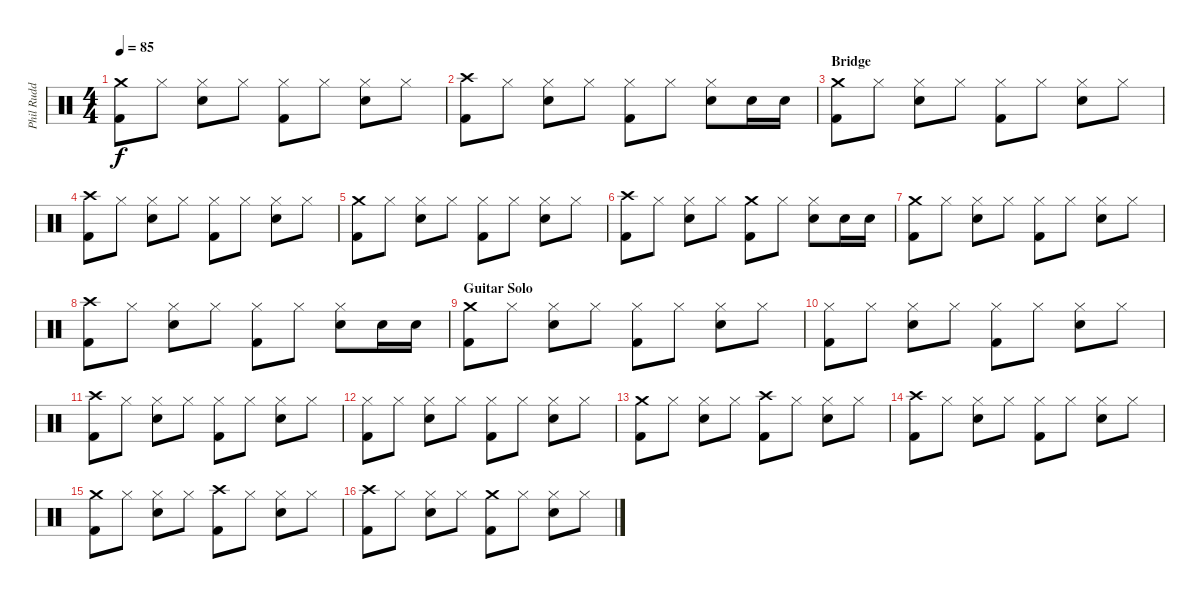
\track ("Phil Rudd" "Phil Rudd") {instrument percussion}
\staff {score}
\articulation defaults
\ts (4 4)
\tempo 85
\clef neutral
\ks c
("Crash medium (hit)" "Kick (hit) 2").8{dy f} "Hi-Hat (closed)".8 ("Hi-Hat (closed)" "Snare (hit) 2").8 "Hi-Hat (closed)".8 ("Hi-Hat (closed)" "Kick (hit) 2").8 "Hi-Hat (closed)".8 ("Hi-Hat (closed)" "Snare (hit) 2").8 "Hi-Hat (closed)".8 |
("Crash high (hit)" "Kick (hit) 2").8 "Hi-Hat (closed)".8 ("Hi-Hat (closed)" "Snare (hit) 2").8 "Hi-Hat (closed)".8 ("Hi-Hat (closed)" "Kick (hit) 2").8 "Hi-Hat (closed)".8 ("Hi-Hat (closed)" "Snare (hit) 2").8 "Snare (hit) 2".16 "Snare (hit) 2".16 |
\section ("" "Bridge")
("Crash medium (hit)" "Kick (hit) 2").8 "Hi-Hat (closed)".8 ("Hi-Hat (closed)" "Snare (hit) 2").8 "Hi-Hat (closed)".8 ("Hi-Hat (closed)" "Kick (hit) 2").8 "Hi-Hat (closed)".8 ("Hi-Hat (closed)" "Snare (hit) 2").8 "Hi-Hat (closed)".8 |
("Crash high (hit)" "Kick (hit) 2").8 "Hi-Hat (closed)".8 ("Hi-Hat (closed)" "Snare (hit) 2").8 "Hi-Hat (closed)".8 ("Hi-Hat (closed)" "Kick (hit) 2").8 "Hi-Hat (closed)".8 ("Hi-Hat (closed)" "Snare (hit) 2").8 "Hi-Hat (closed)".8 |
("Crash medium (hit)" "Kick (hit) 2").8 "Hi-Hat (closed)".8 ("Hi-Hat (closed)" "Snare (hit) 2").8 "Hi-Hat (closed)".8 ("Hi-Hat (closed)" "Kick (hit) 2").8 "Hi-Hat (closed)".8 ("Hi-Hat (closed)" "Snare (hit) 2").8 "Hi-Hat (closed)".8 |
("Crash high (hit)" "Kick (hit) 2").8 "Hi-Hat (closed)".8 ("Hi-Hat (closed)" "Snare (hit) 2").8 "Hi-Hat (closed)".8 ("Crash medium (hit)" "Kick (hit) 2").8 "Hi-Hat (closed)".8 ("Hi-Hat (closed)" "Snare (hit) 2").8 "Snare (hit) 2".16 "Snare (hit) 2".16 |
("Crash medium (hit)" "Kick (hit) 2").8 "Hi-Hat (closed)".8 ("Hi-Hat (closed)" "Snare (hit) 2").8 "Hi-Hat (closed)".8 ("Hi-Hat (closed)" "Kick (hit) 2").8 "Hi-Hat (closed)".8 ("Hi-Hat (closed)" "Snare (hit) 2").8 "Hi-Hat (closed)".8 |
("Crash high (hit)" "Kick (hit) 2").8 "Hi-Hat (closed)".8 ("Hi-Hat (closed)" "Snare (hit) 2").8 "Hi-Hat (closed)".8 ("Hi-Hat (closed)" "Kick (hit) 2").8 "Hi-Hat (closed)".8 ("Hi-Hat (closed)" "Snare (hit) 2").8 "Snare (hit) 2".16 "Snare (hit) 2".16 |
\section ("" "Guitar Solo")
("Crash medium (hit)" "Kick (hit) 2").8 "Hi-Hat (closed)".8 ("Hi-Hat (closed)" "Snare (hit) 2").8 "Hi-Hat (closed)".8 ("Hi-Hat (closed)" "Kick (hit) 2").8 "Hi-Hat (closed)".8 ("Hi-Hat (closed)" "Snare (hit) 2").8 "Hi-Hat (closed)".8 |
("Hi-Hat (closed)" "Kick (hit) 2").8 "Hi-Hat (closed)".8 ("Hi-Hat (closed)" "Snare (hit) 2").8 "Hi-Hat (closed)".8 ("Hi-Hat (closed)" "Kick (hit) 2").8 "Hi-Hat (closed)".8 ("Hi-Hat (closed)" "Snare (hit) 2").8 "Hi-Hat (closed)".8 |
("Crash high (hit)" "Kick (hit) 2").8 "Hi-Hat (closed)".8 ("Hi-Hat (closed)" "Snare (hit) 2").8 "Hi-Hat (closed)".8 ("Hi-Hat (closed)" "Kick (hit) 2").8 "Hi-Hat (closed)".8 ("Hi-Hat (closed)" "Snare (hit) 2").8 "Hi-Hat (closed)".8 |
("Hi-Hat (closed)" "Kick (hit) 2").8 "Hi-Hat (closed)".8 ("Hi-Hat (closed)" "Snare (hit) 2").8 "Hi-Hat (closed)".8 ("Hi-Hat (closed)" "Kick (hit) 2").8 "Hi-Hat (closed)".8 ("Hi-Hat (closed)" "Snare (hit) 2").8 "Hi-Hat (closed)".8 |
("Crash medium (hit)" "Kick (hit) 2").8 "Hi-Hat (closed)".8 ("Hi-Hat (closed)" "Snare (hit) 2").8 "Hi-Hat (closed)".8 ("Crash high (hit)" "Kick (hit) 2").8 "Hi-Hat (closed)".8 ("Hi-Hat (closed)" "Snare (hit) 2").8 "Hi-Hat (closed)".8 |
("Crash high (hit)" "Kick (hit) 2").8 "Hi-Hat (closed)".8 ("Hi-Hat (closed)" "Snare (hit) 2").8 "Hi-Hat (closed)".8 ("Hi-Hat (closed)" "Kick (hit) 2").8 "Hi-Hat (closed)".8 ("Hi-Hat (closed)" "Snare (hit) 2").8 "Hi-Hat (closed)".8 |
("Crash medium (hit)" "Kick (hit) 2").8 "Hi-Hat (closed)".8 ("Hi-Hat (closed)" "Snare (hit) 2").8 "Hi-Hat (closed)".8 ("Crash high (hit)" "Kick (hit) 2").8 "Hi-Hat (closed)".8 ("Hi-Hat (closed)" "Snare (hit) 2").8 "Hi-Hat (closed)".8 |
("Crash high (hit)" "Kick (hit) 2").8 "Hi-Hat (closed)".8 ("Hi-Hat (closed)" "Snare (hit) 2").8 "Hi-Hat (closed)".8 ("Crash medium (hit)" "Kick (hit) 2").8 "Hi-Hat (closed)".8 ("Hi-Hat (closed)" "Snare (hit) 2").8 "Hi-Hat (closed)".8
